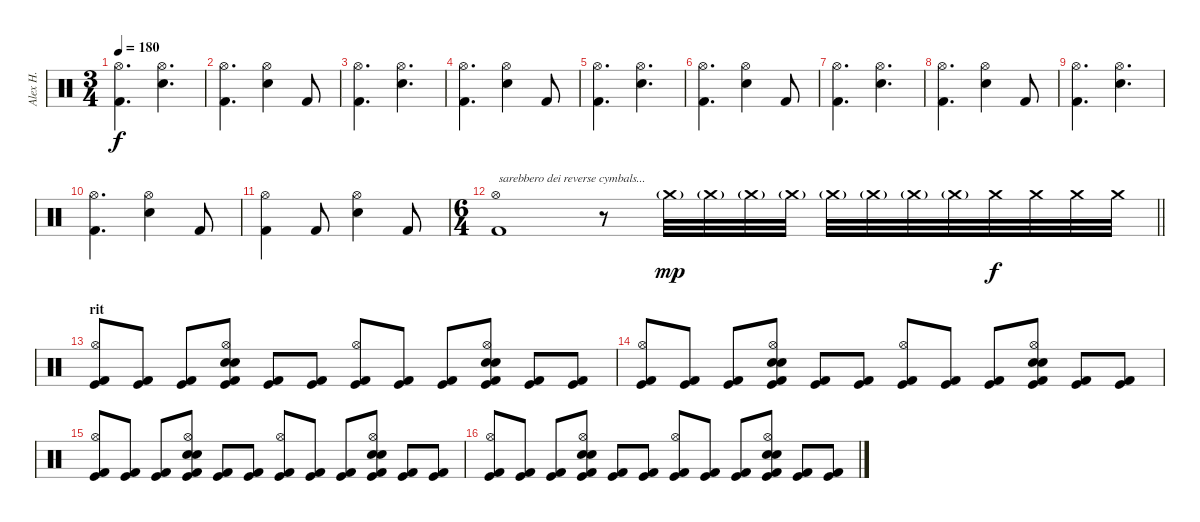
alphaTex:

\track ("Alex H." "Alex H.") {instrument percussion}
\staff {score}
\articulation defaults
\ts (3 4)
\tempo 180
\clef neutral
\ks c
("Kick (hit) 2" "Hi-Hat (open)").4{d dy f} ("Electric Snare (hit)" "Hi-Hat (open)").4{d} |
("Kick (hit) 2" "Hi-Hat (open)").4{d} ("Electric Snare (hit)" "Hi-Hat (open)").4 "Kick (hit) 2".8 |
("Kick (hit) 2" "Hi-Hat (open)").4{d} ("Electric Snare (hit)" "Hi-Hat (open)").4{d} |
("Kick (hit) 2" "Hi-Hat (open)").4{d} ("Electric Snare (hit)" "Hi-Hat (open)").4 "Kick (hit) 2".8 |
("Kick (hit) 2" "Hi-Hat (open)").4{d} ("Electric Snare (hit)" "Hi-Hat (open)").4{d} |
("Kick (hit) 2" "Hi-Hat (open)").4{d} ("Electric Snare (hit)" "Hi-Hat (open)").4 "Kick (hit) 2".8 |
("Kick (hit) 2" "Hi-Hat (open)").4{d} ("Electric Snare (hit)" "Hi-Hat (open)").4{d} |
("Kick (hit) 2" "Hi-Hat (open)").4{d} ("Electric Snare (hit)" "Hi-Hat (open)").4 "Kick (hit) 2".8 |
("Kick (hit) 2" "Hi-Hat (open)").4{d} ("Electric Snare (hit)" "Hi-Hat (open)").4{d} |
("Kick (hit) 2" "Hi-Hat (open)").4{d} ("Electric Snare (hit)" "Hi-Hat (open)").4 "Kick (hit) 2".8 |
("Kick (hit) 2" "Hi-Hat (open)").4 "Kick (hit) 2".8 ("Electric Snare (hit)" "Hi-Hat (open)").4 "Kick (hit) 2".8 |
\ts (6 4)
\barLineRight lightlight
("Kick (hit) 2" "Hi-Hat (open)").1{txt "sarebbero dei reverse cymbals..."} r.8 "Crash medium (hit)"{g}.32{dy mp} "Crash medium (hit)"{g}.32 "Crash medium (hit)"{g}.32 "Crash medium (hit)"{g}.32 "Crash medium (hit)"{g}.32 "Crash medium (hit)"{g}.32 "Crash medium (hit)"{g}.32 "Crash medium (hit)"{g}.32 "Crash medium (hit)".32{dy f} "Crash medium (hit)".32 "Crash medium (hit)".32 "Crash medium (hit)".32 |
\section ("" "rit")
("Kick (hit) 2" "Kick (hit)" "Hi-Hat (open)").8 ("Kick (hit) 2" "Kick (hit)").8 ("Kick (hit) 2" "Kick (hit)").8 ("Kick (hit) 2" "Kick (hit)" "Snare (hit) 2" "Hi-Hat (open)" "Electric Snare (hit)").8 ("Kick (hit) 2" "Kick (hit)").8 ("Kick (hit) 2" "Kick (hit)").8 ("Kick (hit) 2" "Kick (hit)" "Hi-Hat (open)").8 ("Kick (hit) 2" "Kick (hit)").8 ("Kick (hit) 2" "Kick (hit)").8 ("Kick (hit) 2" "Kick (hit)" "Snare (hit) 2" "Electric Snare (hit)" "Hi-Hat (open)").8 ("Kick (hit) 2" "Kick (hit)").8 ("Kick (hit) 2" "Kick (hit)").8 |
("Kick (hit) 2" "Kick (hit)" "Hi-Hat (open)").8 ("Kick (hit) 2" "Kick (hit)").8 ("Kick (hit) 2" "Kick (hit)").8 ("Kick (hit) 2" "Kick (hit)" "Snare (hit) 2" "Hi-Hat (open)" "Electric Snare (hit)").8 ("Kick (hit) 2" "Kick (hit)").8 ("Kick (hit) 2" "Kick (hit)").8 ("Kick (hit) 2" "Kick (hit)" "Hi-Hat (open)").8 ("Kick (hit) 2" "Kick (hit)").8 ("Kick (hit) 2" "Kick (hit)").8 ("Kick (hit) 2" "Kick (hit)" "Snare (hit) 2" "Electric Snare (hit)" "Hi-Hat (open)").8 ("Kick (hit) 2" "Kick (hit)").8 ("Kick (hit) 2" "Kick (hit)").8 |
("Kick (hit) 2" "Kick (hit)" "Hi-Hat (open)").8 ("Kick (hit) 2" "Kick (hit)").8 ("Kick (hit) 2" "Kick (hit)").8 ("Kick (hit) 2" "Kick (hit)" "Snare (hit) 2" "Hi-Hat (open)" "Electric Snare (hit)").8 ("Kick (hit) 2" "Kick (hit)").8 ("Kick (hit) 2" "Kick (hit)").8 ("Kick (hit) 2" "Kick (hit)" "Hi-Hat (open)").8 ("Kick (hit) 2" "Kick (hit)").8 ("Kick (hit) 2" "Kick (hit)").8 ("Kick (hit) 2" "Kick (hit)" "Snare (hit) 2" "Electric Snare (hit)" "Hi-Hat (open)").8 ("Kick (hit) 2" "Kick (hit)").8 ("Kick (hit) 2" "Kick (hit)").8 |
("Kick (hit) 2" "Kick (hit)" "Hi-Hat (open)").8 ("Kick (hit) 2" "Kick (hit)").8 ("Kick (hit) 2" "Kick (hit)").8 ("Kick (hit) 2" "Kick (hit)" "Snare (hit) 2" "Hi-Hat (open)" "Electric Snare (hit)").8 ("Kick (hit) 2" "Kick (hit)").8 ("Kick (hit) 2" "Kick (hit)").8 ("Kick (hit) 2" "Kick (hit)" "Hi-Hat (open)").8 ("Kick (hit) 2" "Kick (hit)").8 ("Kick (hit) 2" "Kick (hit)").8 ("Kick (hit) 2" "Kick (hit)" "Snare (hit) 2" "Electric Snare (hit)" "Hi-Hat (open)").8 ("Kick (hit) 2" "Kick (hit)").8 ("Kick (hit) 2" "Kick (hit)").8
